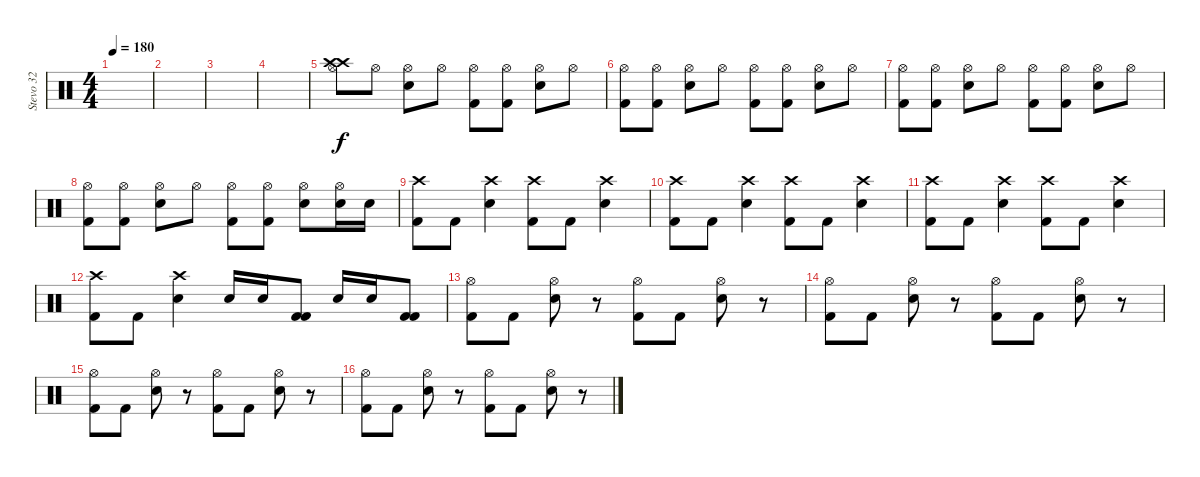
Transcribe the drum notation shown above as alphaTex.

\track ("Stevo 32" "Stevo 32") {instrument percussion}
\staff {score}
\articulation defaults
\ts (4 4)
\tempo 180
\clef neutral
\ks c
|
|
|
|
("Crash high (hit)" "Crash high (hit)" "Hi-Hat (open)").8 "Hi-Hat (open)".8 ("Hi-Hat (open)" "Snare (hit) 2").8 "Hi-Hat (open)".8 ("Hi-Hat (open)" "Kick (hit) 2").8 ("Hi-Hat (open)" "Kick (hit) 2").8 ("Hi-Hat (open)" "Snare (hit) 2").8 "Hi-Hat (open)".8 |
("Hi-Hat (open)" "Kick (hit) 2").8 ("Hi-Hat (open)" "Kick (hit) 2").8 ("Hi-Hat (open)" "Snare (hit) 2").8 "Hi-Hat (open)".8 ("Hi-Hat (open)" "Kick (hit) 2").8 ("Hi-Hat (open)" "Kick (hit) 2").8{txt ""} ("Hi-Hat (open)" "Snare (hit) 2").8 "Hi-Hat (open)".8 |
("Hi-Hat (open)" "Kick (hit) 2").8 ("Hi-Hat (open)" "Kick (hit) 2").8 ("Hi-Hat (open)" "Snare (hit) 2").8 "Hi-Hat (open)".8 ("Hi-Hat (open)" "Kick (hit) 2").8 ("Hi-Hat (open)" "Kick (hit) 2").8 ("Hi-Hat (open)" "Snare (hit) 2").8 "Hi-Hat (open)".8 |
("Hi-Hat (open)" "Kick (hit) 2").8 ("Hi-Hat (open)" "Kick (hit) 2").8 ("Hi-Hat (open)" "Snare (hit) 2").8 "Hi-Hat (open)".8 ("Hi-Hat (open)" "Kick (hit) 2").8 ("Hi-Hat (open)" "Kick (hit) 2").8 ("Hi-Hat (open)" "Snare (hit) 2").8 ("Hi-Hat (open)" "Snare (hit) 2").16 "Snare (hit) 2".16 |
("Crash high (hit)" "Kick (hit) 2").8 "Kick (hit) 2".8 ("Crash high (hit)" "Snare (hit) 2").4 ("Crash high (hit)" "Kick (hit) 2").8 "Kick (hit) 2".8 ("Crash high (hit)" "Snare (hit) 2").4 |
("Crash high (hit)" "Kick (hit) 2").8 "Kick (hit) 2".8 ("Crash high (hit)" "Snare (hit) 2").4 ("Crash high (hit)" "Kick (hit) 2").8 "Kick (hit) 2".8 ("Crash high (hit)" "Snare (hit) 2").4 |
("Crash high (hit)" "Kick (hit) 2").8 "Kick (hit) 2".8 ("Crash high (hit)" "Snare (hit) 2").4 ("Crash high (hit)" "Kick (hit) 2").8 "Kick (hit) 2".8 ("Crash high (hit)" "Snare (hit) 2").4 |
("Crash high (hit)" "Kick (hit) 2").8 "Kick (hit) 2".8 ("Crash high (hit)" "Snare (hit) 2").4 "Snare (hit) 2".16 "Snare (hit) 2".16 ("Kick (hit) 2" "Kick (hit) 2").8 "Snare (hit) 2".16 "Snare (hit) 2".16 ("Kick (hit) 2" "Kick (hit) 2").8 |
("Hi-Hat (open)" "Kick (hit) 2").8 "Kick (hit) 2".8 ("Hi-Hat (open)" "Snare (hit) 2").8 r.8 ("Hi-Hat (open)" "Kick (hit) 2").8 "Kick (hit) 2".8 ("Hi-Hat (open)" "Snare (hit) 2").8 r.8 |
("Hi-Hat (open)" "Kick (hit) 2").8 "Kick (hit) 2".8 ("Hi-Hat (open)" "Snare (hit) 2").8 r.8 ("Hi-Hat (open)" "Kick (hit) 2").8 "Kick (hit) 2".8 ("Hi-Hat (open)" "Snare (hit) 2").8 r.8 |
("Hi-Hat (open)" "Kick (hit) 2").8 "Kick (hit) 2".8 ("Hi-Hat (open)" "Snare (hit) 2").8 r.8 ("Hi-Hat (open)" "Kick (hit) 2").8 "Kick (hit) 2".8 ("Hi-Hat (open)" "Snare (hit) 2").8 r.8 |
("Hi-Hat (open)" "Kick (hit) 2").8 "Kick (hit) 2".8 ("Hi-Hat (open)" "Snare (hit) 2").8 r.8 ("Hi-Hat (open)" "Kick (hit) 2").8 "Kick (hit) 2".8 ("Hi-Hat (open)" "Snare (hit) 2").8 r.8
